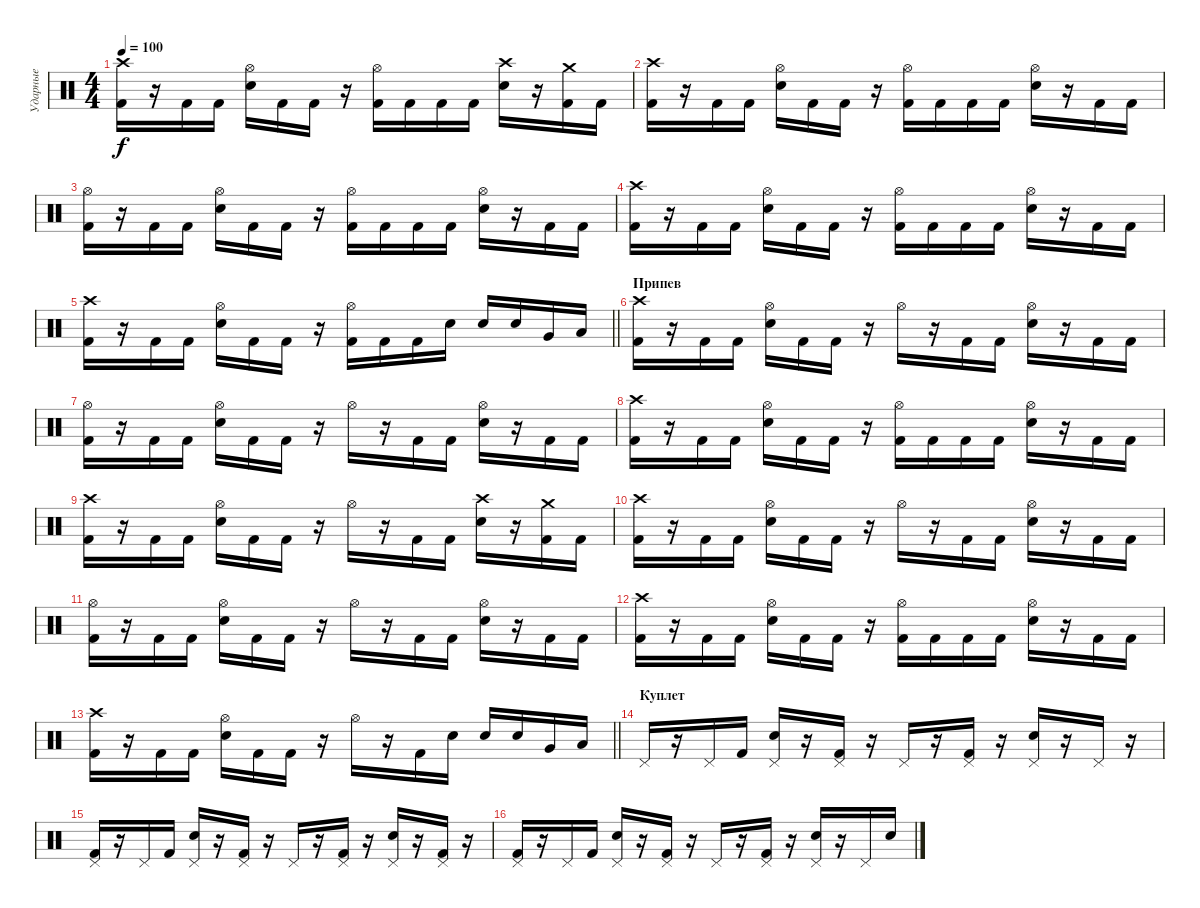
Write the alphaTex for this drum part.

\track ("Ударные" "Ударные") {instrument percussion}
\staff {score}
\articulation defaults
\ts (4 4)
\tempo 100
\clef neutral
\ks c
("Crash high (hit)" "Kick (hit) 2").16{dy f} r.16 "Kick (hit) 2".16 "Kick (hit) 2".16 ("Hi-Hat (open)" "Snare (hit) 2").16 "Kick (hit) 2".16 "Kick (hit) 2".16 r.16 ("Hi-Hat (open)" "Kick (hit) 2").16 "Kick (hit) 2".16 "Kick (hit) 2".16 "Kick (hit) 2".16 ("Crash high (hit)" "Snare (hit) 2").16 r.16 ("Crash medium (hit)" "Kick (hit) 2").16 "Kick (hit) 2".16 |
("Crash high (hit)" "Kick (hit) 2").16 r.16 "Kick (hit) 2".16 "Kick (hit) 2".16 ("Hi-Hat (open)" "Snare (hit) 2").16 "Kick (hit) 2".16 "Kick (hit) 2".16 r.16 ("Hi-Hat (open)" "Kick (hit) 2").16 "Kick (hit) 2".16 "Kick (hit) 2".16 "Kick (hit) 2".16 ("Hi-Hat (open)" "Snare (hit) 2").16 r.16 "Kick (hit) 2".16 "Kick (hit) 2".16 |
("Hi-Hat (open)" "Kick (hit) 2").16 r.16 "Kick (hit) 2".16 "Kick (hit) 2".16 ("Hi-Hat (open)" "Snare (hit) 2").16 "Kick (hit) 2".16 "Kick (hit) 2".16 r.16 ("Hi-Hat (open)" "Kick (hit) 2").16 "Kick (hit) 2".16 "Kick (hit) 2".16 "Kick (hit) 2".16 ("Hi-Hat (open)" "Snare (hit) 2").16 r.16 "Kick (hit) 2".16 "Kick (hit) 2".16 |
("Crash high (hit)" "Kick (hit) 2").16 r.16 "Kick (hit) 2".16 "Kick (hit) 2".16 ("Hi-Hat (open)" "Snare (hit) 2").16 "Kick (hit) 2".16 "Kick (hit) 2".16 r.16 ("Hi-Hat (open)" "Kick (hit) 2").16 "Kick (hit) 2".16 "Kick (hit) 2".16 "Kick (hit) 2".16 ("Hi-Hat (open)" "Snare (hit) 2").16 r.16 "Kick (hit) 2".16 "Kick (hit) 2".16 |
\barLineRight lightlight
("Crash high (hit)" "Kick (hit) 2").16 r.16 "Kick (hit) 2".16 "Kick (hit) 2".16 ("Hi-Hat (open)" "Snare (hit) 2").16 "Kick (hit) 2".16 "Kick (hit) 2".16 r.16 ("Hi-Hat (open)" "Kick (hit) 2").16 "Kick (hit) 2".16 "Kick (hit) 2".16 "Snare (hit) 2".16 "Snare (hit) 2".16 "Snare (hit) 2".16 "Very Low Tom (hit)".16 "Low Tom (hit)".16 |
\section ("" "Припев")
("Crash high (hit)" "Kick (hit) 2").16 r.16 "Kick (hit) 2".16 "Kick (hit) 2".16 ("Hi-Hat (open)" "Snare (hit) 2").16 "Kick (hit) 2".16 "Kick (hit) 2".16 r.16 "Hi-Hat (open)".16 r.16 "Kick (hit) 2".16 "Kick (hit) 2".16 ("Hi-Hat (open)" "Snare (hit) 2").16 r.16 "Kick (hit) 2".16 "Kick (hit) 2".16 |
("Hi-Hat (open)" "Kick (hit) 2").16 r.16 "Kick (hit) 2".16 "Kick (hit) 2".16 ("Hi-Hat (open)" "Snare (hit) 2").16 "Kick (hit) 2".16 "Kick (hit) 2".16 r.16 "Hi-Hat (open)".16 r.16 "Kick (hit) 2".16 "Kick (hit) 2".16 ("Hi-Hat (open)" "Snare (hit) 2").16 r.16 "Kick (hit) 2".16 "Kick (hit) 2".16 |
("Crash high (hit)" "Kick (hit) 2").16 r.16 "Kick (hit) 2".16 "Kick (hit) 2".16 ("Hi-Hat (open)" "Snare (hit) 2").16 "Kick (hit) 2".16 "Kick (hit) 2".16 r.16 ("Hi-Hat (open)" "Kick (hit) 2").16 "Kick (hit) 2".16 "Kick (hit) 2".16 "Kick (hit) 2".16 ("Hi-Hat (open)" "Snare (hit) 2").16 r.16 "Kick (hit) 2".16 "Kick (hit) 2".16 |
("Crash high (hit)" "Kick (hit) 2").16 r.16 "Kick (hit) 2".16 "Kick (hit) 2".16 ("Hi-Hat (open)" "Snare (hit) 2").16 "Kick (hit) 2".16 "Kick (hit) 2".16 r.16 "Hi-Hat (open)".16 r.16 "Kick (hit) 2".16 "Kick (hit) 2".16 ("Crash high (hit)" "Snare (hit) 2").16 r.16 ("Crash medium (hit)" "Kick (hit) 2").16 "Kick (hit) 2".16 |
("Crash high (hit)" "Kick (hit) 2").16 r.16 "Kick (hit) 2".16 "Kick (hit) 2".16 ("Hi-Hat (open)" "Snare (hit) 2").16 "Kick (hit) 2".16 "Kick (hit) 2".16 r.16 "Hi-Hat (open)".16 r.16 "Kick (hit) 2".16 "Kick (hit) 2".16 ("Hi-Hat (open)" "Snare (hit) 2").16 r.16 "Kick (hit) 2".16 "Kick (hit) 2".16 |
("Hi-Hat (open)" "Kick (hit) 2").16 r.16 "Kick (hit) 2".16 "Kick (hit) 2".16 ("Hi-Hat (open)" "Snare (hit) 2").16 "Kick (hit) 2".16 "Kick (hit) 2".16 r.16 "Hi-Hat (open)".16 r.16 "Kick (hit) 2".16 "Kick (hit) 2".16 ("Hi-Hat (open)" "Snare (hit) 2").16 r.16 "Kick (hit) 2".16 "Kick (hit) 2".16 |
("Crash high (hit)" "Kick (hit) 2").16 r.16 "Kick (hit) 2".16 "Kick (hit) 2".16 ("Hi-Hat (open)" "Snare (hit) 2").16 "Kick (hit) 2".16 "Kick (hit) 2".16 r.16 ("Hi-Hat (open)" "Kick (hit) 2").16 "Kick (hit) 2".16 "Kick (hit) 2".16 "Kick (hit) 2".16 ("Hi-Hat (open)" "Snare (hit) 2").16 r.16 "Kick (hit) 2".16 "Kick (hit) 2".16 |
\barLineRight lightlight
("Crash high (hit)" "Kick (hit) 2").16 r.16 "Kick (hit) 2".16 "Kick (hit) 2".16 ("Hi-Hat (open)" "Snare (hit) 2").16 "Kick (hit) 2".16 "Kick (hit) 2".16 r.16 "Hi-Hat (open)".16 r.16 "Kick (hit) 2".16 "Snare (hit) 2".16 "Snare (hit) 2".16 "Snare (hit) 2".16 "Very Low Tom (hit)".16 "Low Tom (hit)".16 |
\section ("" "Куплет")
"Pedal Hi-Hat (hit)".16 r.16 "Pedal Hi-Hat (hit)".16 "Kick (hit) 2".16 ("Pedal Hi-Hat (hit)" "Snare (hit) 2").16 r.16 ("Pedal Hi-Hat (hit)" "Kick (hit) 2").16 r.16 "Pedal Hi-Hat (hit)".16 r.16 ("Pedal Hi-Hat (hit)" "Kick (hit) 2").16 r.16 ("Pedal Hi-Hat (hit)" "Snare (hit) 2").16 r.16 "Pedal Hi-Hat (hit)".16 r.16 |
("Pedal Hi-Hat (hit)" "Kick (hit) 2").16 r.16 "Pedal Hi-Hat (hit)".16 "Kick (hit) 2".16 ("Pedal Hi-Hat (hit)" "Snare (hit) 2").16 r.16 ("Pedal Hi-Hat (hit)" "Kick (hit) 2").16 r.16 "Pedal Hi-Hat (hit)".16 r.16 ("Pedal Hi-Hat (hit)" "Kick (hit) 2").16 r.16 ("Pedal Hi-Hat (hit)" "Snare (hit) 2").16 r.16 ("Pedal Hi-Hat (hit)" "Kick (hit) 2").16 r.16 |
("Pedal Hi-Hat (hit)" "Kick (hit) 2").16 r.16 "Pedal Hi-Hat (hit)".16 "Kick (hit) 2".16 ("Pedal Hi-Hat (hit)" "Snare (hit) 2").16 r.16 ("Pedal Hi-Hat (hit)" "Kick (hit) 2").16 r.16 "Pedal Hi-Hat (hit)".16 r.16 ("Pedal Hi-Hat (hit)" "Kick (hit) 2").16 r.16 ("Pedal Hi-Hat (hit)" "Snare (hit) 2").16 r.16 "Pedal Hi-Hat (hit)".16 "Snare (hit) 2".16
